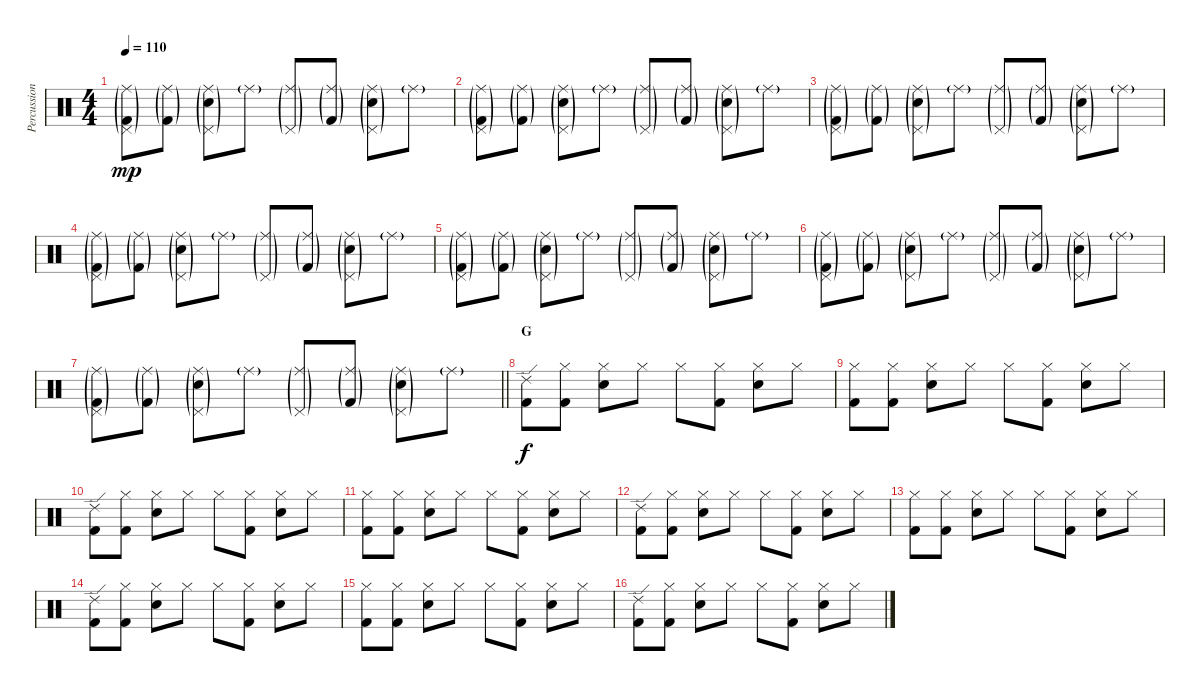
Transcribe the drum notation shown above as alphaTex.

\track ("Percussion" "Percussion") {instrument percussion}
\staff {score}
\articulation defaults
\ts (4 4)
\tempo 110
\clef neutral
\ks c
("Ride (middle)"{g} "Pedal Hi-Hat (hit)"{g} "Kick (hit) 2"{g}).8{dy mp} ("Ride (middle)"{g} "Kick (hit) 2"{g}).8 ("Ride (middle)"{g} "Pedal Hi-Hat (hit)"{g} "Electric Snare (hit)"{g}).8 "Ride (middle)"{g}.8 ("Ride (middle)"{g} "Pedal Hi-Hat (hit)"{g}).8 ("Ride (middle)"{g} "Kick (hit) 2"{g}).8 ("Ride (middle)"{g} "Pedal Hi-Hat (hit)"{g} "Electric Snare (hit)"{g}).8 "Ride (middle)"{g}.8 |
("Ride (middle)"{g} "Pedal Hi-Hat (hit)"{g} "Kick (hit) 2"{g}).8 ("Ride (middle)"{g} "Kick (hit) 2"{g}).8 ("Ride (middle)"{g} "Pedal Hi-Hat (hit)"{g} "Electric Snare (hit)"{g}).8 "Ride (middle)"{g}.8 ("Ride (middle)"{g} "Pedal Hi-Hat (hit)"{g}).8 ("Ride (middle)"{g} "Kick (hit) 2"{g}).8 ("Ride (middle)"{g} "Pedal Hi-Hat (hit)"{g} "Electric Snare (hit)"{g}).8 "Ride (middle)"{g}.8 |
("Ride (middle)"{g} "Pedal Hi-Hat (hit)"{g} "Kick (hit) 2"{g}).8 ("Ride (middle)"{g} "Kick (hit) 2"{g}).8 ("Ride (middle)"{g} "Pedal Hi-Hat (hit)"{g} "Electric Snare (hit)"{g}).8 "Ride (middle)"{g}.8 ("Ride (middle)"{g} "Pedal Hi-Hat (hit)"{g}).8 ("Ride (middle)"{g} "Kick (hit) 2"{g}).8 ("Ride (middle)"{g} "Pedal Hi-Hat (hit)"{g} "Electric Snare (hit)"{g}).8 "Ride (middle)"{g}.8 |
("Ride (middle)"{g} "Pedal Hi-Hat (hit)"{g} "Kick (hit) 2"{g}).8 ("Ride (middle)"{g} "Kick (hit) 2"{g}).8 ("Ride (middle)"{g} "Pedal Hi-Hat (hit)"{g} "Electric Snare (hit)"{g}).8 "Ride (middle)"{g}.8 ("Ride (middle)"{g} "Pedal Hi-Hat (hit)"{g}).8 ("Ride (middle)"{g} "Kick (hit) 2"{g}).8 ("Ride (middle)"{g} "Pedal Hi-Hat (hit)"{g} "Electric Snare (hit)"{g}).8 "Ride (middle)"{g}.8 |
("Ride (middle)"{g} "Pedal Hi-Hat (hit)"{g} "Kick (hit) 2"{g}).8 ("Ride (middle)"{g} "Kick (hit) 2"{g}).8 ("Ride (middle)"{g} "Pedal Hi-Hat (hit)"{g} "Electric Snare (hit)"{g}).8 "Ride (middle)"{g}.8 ("Ride (middle)"{g} "Pedal Hi-Hat (hit)"{g}).8 ("Ride (middle)"{g} "Kick (hit) 2"{g}).8 ("Ride (middle)"{g} "Pedal Hi-Hat (hit)"{g} "Electric Snare (hit)"{g}).8 "Ride (middle)"{g}.8 |
("Ride (middle)"{g} "Pedal Hi-Hat (hit)"{g} "Kick (hit) 2"{g}).8 ("Ride (middle)"{g} "Kick (hit) 2"{g}).8 ("Ride (middle)"{g} "Pedal Hi-Hat (hit)"{g} "Electric Snare (hit)"{g}).8 "Ride (middle)"{g}.8 ("Ride (middle)"{g} "Pedal Hi-Hat (hit)"{g}).8 ("Ride (middle)"{g} "Kick (hit) 2"{g}).8 ("Ride (middle)"{g} "Pedal Hi-Hat (hit)"{g} "Electric Snare (hit)"{g}).8 "Ride (middle)"{g}.8 |
\barLineRight lightlight
("Ride (middle)"{g} "Pedal Hi-Hat (hit)"{g} "Kick (hit) 2"{g}).8 ("Ride (middle)"{g} "Kick (hit) 2"{g}).8 ("Ride (middle)"{g} "Pedal Hi-Hat (hit)"{g} "Electric Snare (hit)"{g}).8 "Ride (middle)"{g}.8 ("Ride (middle)"{g} "Pedal Hi-Hat (hit)"{g}).8 ("Ride (middle)"{g} "Kick (hit) 2"{g}).8 ("Ride (middle)"{g} "Pedal Hi-Hat (hit)"{g} "Electric Snare (hit)"{g}).8 "Ride (middle)"{g}.8 |
\section ("" "G")
("Ride (edge) 2" "Kick (hit) 2").8{dy f} ("Hi-Hat (closed)" "Kick (hit) 2").8 ("Hi-Hat (closed)" "Electric Snare (hit)").8 "Hi-Hat (closed)".8 "Hi-Hat (closed)".8 ("Hi-Hat (closed)" "Kick (hit) 2").8 ("Hi-Hat (closed)" "Electric Snare (hit)").8 "Hi-Hat (closed)".8 |
("Hi-Hat (closed)" "Kick (hit) 2").8 ("Hi-Hat (closed)" "Kick (hit) 2").8 ("Hi-Hat (closed)" "Electric Snare (hit)").8 "Hi-Hat (closed)".8 "Hi-Hat (closed)".8 ("Hi-Hat (closed)" "Kick (hit) 2").8 ("Hi-Hat (closed)" "Electric Snare (hit)").8 "Hi-Hat (closed)".8 |
("Ride (edge) 2" "Kick (hit) 2").8 ("Hi-Hat (closed)" "Kick (hit) 2").8 ("Hi-Hat (closed)" "Electric Snare (hit)").8 "Hi-Hat (closed)".8 "Hi-Hat (closed)".8 ("Hi-Hat (closed)" "Kick (hit) 2").8 ("Hi-Hat (closed)" "Electric Snare (hit)").8 "Hi-Hat (closed)".8 |
("Hi-Hat (closed)" "Kick (hit) 2").8 ("Hi-Hat (closed)" "Kick (hit) 2").8 ("Hi-Hat (closed)" "Electric Snare (hit)").8 "Hi-Hat (closed)".8 "Hi-Hat (closed)".8 ("Hi-Hat (closed)" "Kick (hit) 2").8 ("Hi-Hat (closed)" "Electric Snare (hit)").8 "Hi-Hat (closed)".8 |
("Ride (edge) 2" "Kick (hit) 2").8 ("Hi-Hat (closed)" "Kick (hit) 2").8 ("Hi-Hat (closed)" "Electric Snare (hit)").8 "Hi-Hat (closed)".8 "Hi-Hat (closed)".8 ("Hi-Hat (closed)" "Kick (hit) 2").8 ("Hi-Hat (closed)" "Electric Snare (hit)").8 "Hi-Hat (closed)".8 |
("Hi-Hat (closed)" "Kick (hit) 2").8 ("Hi-Hat (closed)" "Kick (hit) 2").8 ("Hi-Hat (closed)" "Electric Snare (hit)").8 "Hi-Hat (closed)".8 "Hi-Hat (closed)".8 ("Hi-Hat (closed)" "Kick (hit) 2").8 ("Hi-Hat (closed)" "Electric Snare (hit)").8 "Hi-Hat (closed)".8 |
("Ride (edge) 2" "Kick (hit) 2").8 ("Hi-Hat (closed)" "Kick (hit) 2").8 ("Hi-Hat (closed)" "Electric Snare (hit)").8 "Hi-Hat (closed)".8 "Hi-Hat (closed)".8 ("Hi-Hat (closed)" "Kick (hit) 2").8 ("Hi-Hat (closed)" "Electric Snare (hit)").8 "Hi-Hat (closed)".8 |
("Hi-Hat (closed)" "Kick (hit) 2").8 ("Hi-Hat (closed)" "Kick (hit) 2").8 ("Hi-Hat (closed)" "Electric Snare (hit)").8 "Hi-Hat (closed)".8 "Hi-Hat (closed)".8 ("Hi-Hat (closed)" "Kick (hit) 2").8 ("Hi-Hat (closed)" "Electric Snare (hit)").8 "Hi-Hat (closed)".8 |
("Ride (edge) 2" "Kick (hit) 2").8 ("Hi-Hat (closed)" "Kick (hit) 2").8 ("Hi-Hat (closed)" "Electric Snare (hit)").8 "Hi-Hat (closed)".8 "Hi-Hat (closed)".8 ("Hi-Hat (closed)" "Kick (hit) 2").8 ("Hi-Hat (closed)" "Electric Snare (hit)").8 "Hi-Hat (closed)".8
